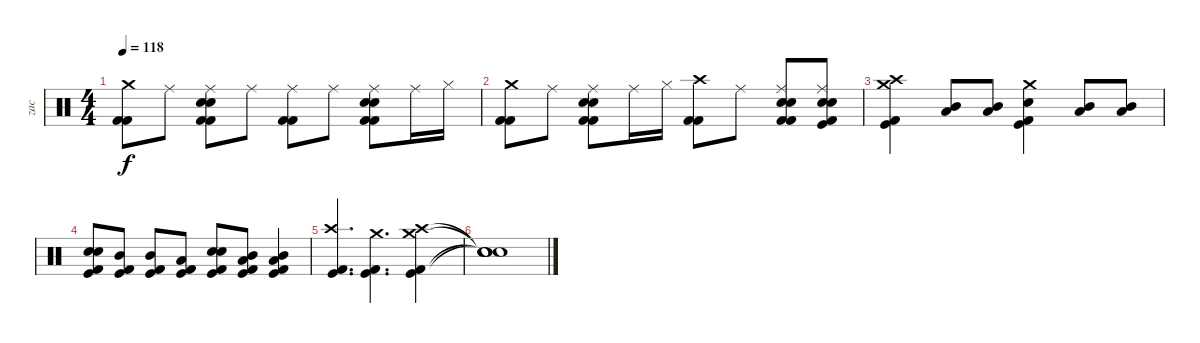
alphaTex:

\track ("zac" "zac") {instrument percussion}
\staff {score}
\articulation defaults
\ts (4 4)
\tempo 118
\clef neutral
\ks c
("Crash medium (hit)" "Kick (hit) 2" "Kick (hit) 2").8{dy f} "Ride (middle)".8 ("Electric Snare (hit)" "Ride (middle)" "Electric Snare (hit)" "Kick (hit) 2" "Kick (hit) 2").8 "Ride (middle)".8 ("Ride (middle)" "Kick (hit) 2" "Kick (hit) 2").8 "Ride (middle)".8 ("Electric Snare (hit)" "Ride (middle)" "Electric Snare (hit)" "Kick (hit) 2" "Kick (hit) 2").8 "Ride (middle)".16 "Hi-Hat (closed)".16 |
("Crash medium (hit)" "Kick (hit) 2" "Kick (hit) 2").8 "Ride (middle)".8 ("Electric Snare (hit)" "Ride (middle)" "Electric Snare (hit)" "Kick (hit) 2" "Kick (hit) 2").8 "Ride (middle)".16 "Hi-Hat (closed)".16 ("Crash high (hit)" "Kick (hit) 2" "Kick (hit) 2").8 "Ride (middle)".8 ("Electric Snare (hit)" "Ride (middle)" "Electric Snare (hit)" "Kick (hit) 2" "Kick (hit) 2").8 ("Electric Snare (hit)" "Ride (middle)" "Electric Snare (hit)" "Kick (hit)" "Kick (hit) 2").8 |
("Crash high (hit)" "Crash medium (hit)" "Kick (hit)" "Kick (hit) 2").4 ("Mid Tom (hit)" "Low Tom (hit)").8 ("Mid Tom (hit)" "Low Tom (hit)").8 ("Crash medium (hit)" "Kick (hit)" "Electric Snare (hit)" "Kick (hit) 2").4 ("Mid Tom (hit)" "Low Tom (hit)").8 ("Mid Tom (hit)" "Low Tom (hit)").8 |
("Kick (hit)" "Electric Snare (hit)" "Electric Snare (hit)" "Kick (hit) 2").8 ("Mid Tom (hit)" "Kick (hit)" "Kick (hit) 2").8 ("Mid Tom (hit)" "Kick (hit)" "Kick (hit) 2").8 ("Low Tom (hit)" "Kick (hit)" "Kick (hit) 2").8 ("Kick (hit)" "Electric Snare (hit)" "Electric Snare (hit)" "Kick (hit) 2").8 ("Mid Tom (hit)" "Low Tom (hit)" "Kick (hit)" "Kick (hit) 2").8 ("Mid Tom (hit)" "Low Tom (hit)" "Kick (hit)" "Kick (hit) 2").4 |
("Crash high (hit)" "Kick (hit)" "Kick (hit) 2").4{d} ("Crash medium (hit)" "Kick (hit)" "Kick (hit) 2").4{d} ("Crash high (hit)" "Crash medium (hit)" "Kick (hit)" "Kick (hit) 2").4 |
("Snare (hit)"{t} "Snare (hit)"{t} "Snare (hit)"{t} "Snare (hit)"{t}).1
